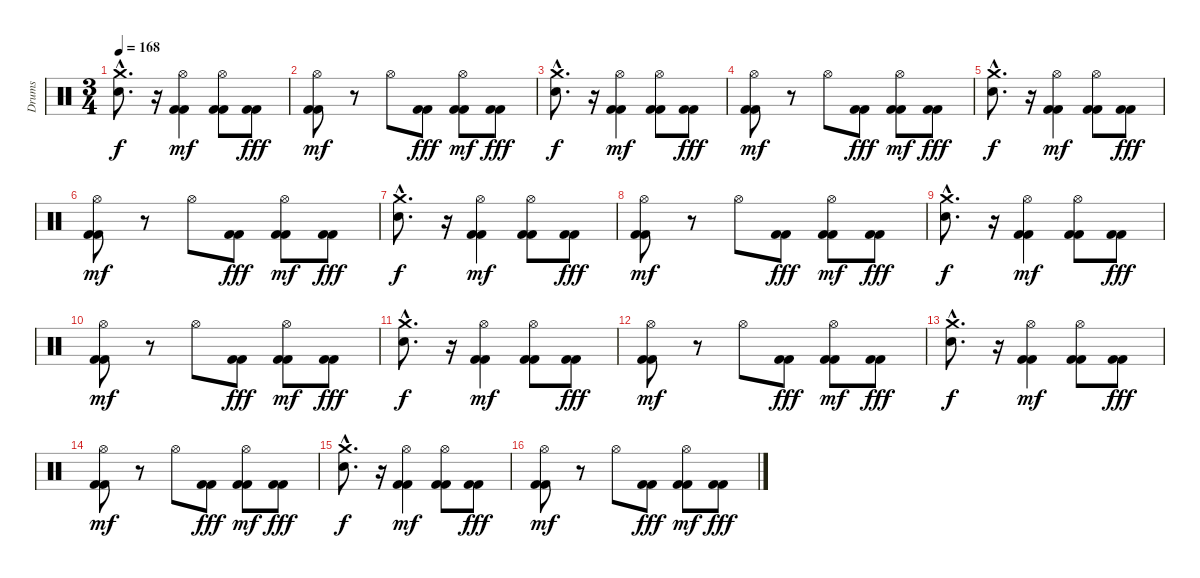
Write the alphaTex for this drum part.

\track ("Drums" "Drums") {instrument percussion}
\staff {score}
\articulation defaults
\ts (3 4)
\tempo 168
\clef neutral
\ks c
("Crash medium (hit)"{hac} "Electric Snare (hit)"{hac}).8{d dy f} r.16 ("Kick (hit) 2" "Kick (hit) 2" "Hi-Hat (open)").4{dy mf} ("Kick (hit) 2" "Kick (hit) 2" "Hi-Hat (open)").8 ("Kick (hit) 2" "Kick (hit) 2").8{dy fff} |
("Kick (hit) 2" "Kick (hit) 2" "Hi-Hat (open)").8{dy mf} r.8 "Hi-Hat (open)".8 ("Kick (hit) 2" "Kick (hit) 2").8{dy fff} ("Kick (hit) 2" "Kick (hit) 2" "Hi-Hat (open)").8{dy mf} ("Kick (hit) 2" "Kick (hit) 2").8{dy fff} |
("Crash medium (hit)"{hac} "Electric Snare (hit)"{hac}).8{d dy f} r.16 ("Kick (hit) 2" "Kick (hit) 2" "Hi-Hat (open)").4{dy mf} ("Kick (hit) 2" "Kick (hit) 2" "Hi-Hat (open)").8 ("Kick (hit) 2" "Kick (hit) 2").8{dy fff} |
("Kick (hit) 2" "Kick (hit) 2" "Hi-Hat (open)").8{dy mf} r.8 "Hi-Hat (open)".8 ("Kick (hit) 2" "Kick (hit) 2").8{dy fff} ("Kick (hit) 2" "Kick (hit) 2" "Hi-Hat (open)").8{dy mf} ("Kick (hit) 2" "Kick (hit) 2").8{dy fff} |
("Crash medium (hit)"{hac} "Electric Snare (hit)"{hac}).8{d dy f} r.16 ("Kick (hit) 2" "Kick (hit) 2" "Hi-Hat (open)").4{dy mf} ("Kick (hit) 2" "Kick (hit) 2" "Hi-Hat (open)").8 ("Kick (hit) 2" "Kick (hit) 2").8{dy fff} |
("Kick (hit) 2" "Kick (hit) 2" "Hi-Hat (open)").8{dy mf} r.8 "Hi-Hat (open)".8 ("Kick (hit) 2" "Kick (hit) 2").8{dy fff} ("Kick (hit) 2" "Kick (hit) 2" "Hi-Hat (open)").8{dy mf} ("Kick (hit) 2" "Kick (hit) 2").8{dy fff} |
("Crash medium (hit)"{hac} "Electric Snare (hit)"{hac}).8{d dy f} r.16 ("Kick (hit) 2" "Kick (hit) 2" "Hi-Hat (open)").4{dy mf} ("Kick (hit) 2" "Kick (hit) 2" "Hi-Hat (open)").8 ("Kick (hit) 2" "Kick (hit) 2").8{dy fff} |
("Kick (hit) 2" "Kick (hit) 2" "Hi-Hat (open)").8{dy mf} r.8 "Hi-Hat (open)".8 ("Kick (hit) 2" "Kick (hit) 2").8{dy fff} ("Kick (hit) 2" "Kick (hit) 2" "Hi-Hat (open)").8{dy mf} ("Kick (hit) 2" "Kick (hit) 2").8{dy fff} |
("Crash medium (hit)"{hac} "Electric Snare (hit)"{hac}).8{d dy f} r.16 ("Kick (hit) 2" "Kick (hit) 2" "Hi-Hat (open)").4{dy mf} ("Kick (hit) 2" "Kick (hit) 2" "Hi-Hat (open)").8 ("Kick (hit) 2" "Kick (hit) 2").8{dy fff} |
("Kick (hit) 2" "Kick (hit) 2" "Hi-Hat (open)").8{dy mf} r.8 "Hi-Hat (open)".8 ("Kick (hit) 2" "Kick (hit) 2").8{dy fff} ("Kick (hit) 2" "Kick (hit) 2" "Hi-Hat (open)").8{dy mf} ("Kick (hit) 2" "Kick (hit) 2").8{dy fff} |
("Crash medium (hit)"{hac} "Electric Snare (hit)"{hac}).8{d dy f} r.16 ("Kick (hit) 2" "Kick (hit) 2" "Hi-Hat (open)").4{dy mf} ("Kick (hit) 2" "Kick (hit) 2" "Hi-Hat (open)").8 ("Kick (hit) 2" "Kick (hit) 2").8{dy fff} |
("Kick (hit) 2" "Kick (hit) 2" "Hi-Hat (open)").8{dy mf} r.8 "Hi-Hat (open)".8 ("Kick (hit) 2" "Kick (hit) 2").8{dy fff} ("Kick (hit) 2" "Kick (hit) 2" "Hi-Hat (open)").8{dy mf} ("Kick (hit) 2" "Kick (hit) 2").8{dy fff} |
("Crash medium (hit)"{hac} "Electric Snare (hit)"{hac}).8{d dy f} r.16 ("Kick (hit) 2" "Kick (hit) 2" "Hi-Hat (open)").4{dy mf} ("Kick (hit) 2" "Kick (hit) 2" "Hi-Hat (open)").8 ("Kick (hit) 2" "Kick (hit) 2").8{dy fff} |
("Kick (hit) 2" "Kick (hit) 2" "Hi-Hat (open)").8{dy mf} r.8 "Hi-Hat (open)".8 ("Kick (hit) 2" "Kick (hit) 2").8{dy fff} ("Kick (hit) 2" "Kick (hit) 2" "Hi-Hat (open)").8{dy mf} ("Kick (hit) 2" "Kick (hit) 2").8{dy fff} |
("Crash medium (hit)"{hac} "Electric Snare (hit)"{hac}).8{d dy f} r.16 ("Kick (hit) 2" "Kick (hit) 2" "Hi-Hat (open)").4{dy mf} ("Kick (hit) 2" "Kick (hit) 2" "Hi-Hat (open)").8 ("Kick (hit) 2" "Kick (hit) 2").8{dy fff} |
("Kick (hit) 2" "Kick (hit) 2" "Hi-Hat (open)").8{dy mf} r.8 "Hi-Hat (open)".8 ("Kick (hit) 2" "Kick (hit) 2").8{dy fff} ("Kick (hit) 2" "Kick (hit) 2" "Hi-Hat (open)").8{dy mf} ("Kick (hit) 2" "Kick (hit) 2").8{dy fff}
